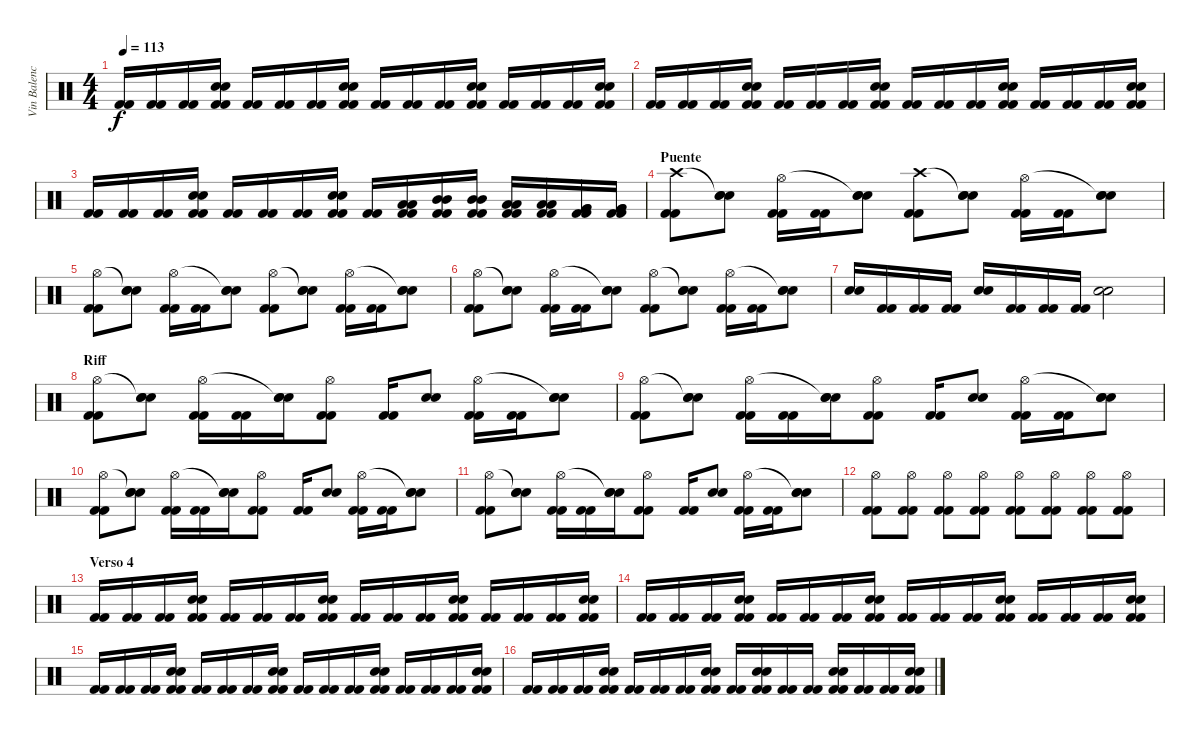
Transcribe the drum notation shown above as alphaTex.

\track ("Vin Balencia (bateria)" "Vin Balenc") {instrument percussion}
\staff {score}
\articulation defaults
\ts (4 4)
\tempo 113
\clef neutral
\ks c
("Kick (hit) 2" "Kick (hit) 2").16{dy f} ("Kick (hit) 2" "Kick (hit) 2").16 ("Kick (hit) 2" "Kick (hit) 2").16 ("Electric Snare (hit)" "Electric Snare (hit)" "Kick (hit) 2" "Kick (hit) 2").16 ("Kick (hit) 2" "Kick (hit) 2").16 ("Kick (hit) 2" "Kick (hit) 2").16 ("Kick (hit) 2" "Kick (hit) 2").16 ("Electric Snare (hit)" "Electric Snare (hit)" "Kick (hit) 2" "Kick (hit) 2").16 ("Kick (hit) 2" "Kick (hit) 2").16 ("Kick (hit) 2" "Kick (hit) 2").16 ("Kick (hit) 2" "Kick (hit) 2").16 ("Electric Snare (hit)" "Electric Snare (hit)" "Kick (hit) 2" "Kick (hit) 2").16 ("Kick (hit) 2" "Kick (hit) 2").16 ("Kick (hit) 2" "Kick (hit) 2").16 ("Kick (hit) 2" "Kick (hit) 2").16 ("Electric Snare (hit)" "Electric Snare (hit)" "Kick (hit) 2" "Kick (hit) 2").16 |
("Kick (hit) 2" "Kick (hit) 2").16 ("Kick (hit) 2" "Kick (hit) 2").16 ("Kick (hit) 2" "Kick (hit) 2").16 ("Electric Snare (hit)" "Electric Snare (hit)" "Kick (hit) 2" "Kick (hit) 2").16 ("Kick (hit) 2" "Kick (hit) 2").16 ("Kick (hit) 2" "Kick (hit) 2").16 ("Kick (hit) 2" "Kick (hit) 2").16 ("Electric Snare (hit)" "Electric Snare (hit)" "Kick (hit) 2" "Kick (hit) 2").16 ("Kick (hit) 2" "Kick (hit) 2").16 ("Kick (hit) 2" "Kick (hit) 2").16 ("Kick (hit) 2" "Kick (hit) 2").16 ("Electric Snare (hit)" "Electric Snare (hit)" "Kick (hit) 2" "Kick (hit) 2").16 ("Kick (hit) 2" "Kick (hit) 2").16 ("Kick (hit) 2" "Kick (hit) 2").16 ("Kick (hit) 2" "Kick (hit) 2").16 ("Electric Snare (hit)" "Electric Snare (hit)" "Kick (hit) 2" "Kick (hit) 2").16 |
("Kick (hit) 2" "Kick (hit) 2").16 ("Kick (hit) 2" "Kick (hit) 2").16 ("Kick (hit) 2" "Kick (hit) 2").16 ("Electric Snare (hit)" "Electric Snare (hit)" "Kick (hit) 2" "Kick (hit) 2").16 ("Kick (hit) 2" "Kick (hit) 2").16 ("Kick (hit) 2" "Kick (hit) 2").16 ("Kick (hit) 2" "Kick (hit) 2").16 ("Electric Snare (hit)" "Electric Snare (hit)" "Kick (hit) 2" "Kick (hit) 2").16 ("Kick (hit) 2" "Kick (hit) 2").16 ("Low Floor Tom (hit)" "Low Floor Tom (hit)" "Kick (hit) 2" "Kick (hit) 2").16 ("Mid Tom (hit)" "Mid Tom (hit)" "Kick (hit) 2" "Kick (hit) 2").16 ("Mid Tom (hit)" "Mid Tom (hit)" "Kick (hit) 2" "Kick (hit) 2").16 ("Low Tom (hit)" "Low Tom (hit)" "Kick (hit) 2" "Kick (hit) 2").16 ("Low Tom (hit)" "Low Tom (hit)" "Kick (hit) 2" "Kick (hit) 2").16 ("Very Low Tom (hit)" "Very Low Tom (hit)" "Kick (hit) 2" "Kick (hit) 2").16 ("Very Low Tom (hit)" "Very Low Tom (hit)" "Kick (hit) 2" "Kick (hit) 2").16 |
\section ("" "Puente")
("Kick (hit) 2" "Kick (hit) 2" "Crash high (hit)").8 ("Snare (hit) 2" "Snare (hit) 2" "Snare (hit)"{t}).8 ("Kick (hit) 2" "Kick (hit) 2" "Hi-Hat (open)").16 ("Kick (hit) 2" "Kick (hit) 2").16 ("Snare (hit) 2" "Snare (hit) 2" "Snare (hit)"{t}).8 ("Kick (hit) 2" "Kick (hit) 2" "Crash high (hit)").8 ("Snare (hit) 2" "Snare (hit) 2" "Snare (hit)"{t}).8 ("Kick (hit) 2" "Kick (hit) 2" "Hi-Hat (open)").16 ("Kick (hit) 2" "Kick (hit) 2").16 ("Snare (hit) 2" "Snare (hit) 2" "Snare (hit)"{t}).8 |
("Kick (hit) 2" "Kick (hit) 2" "Hi-Hat (open)").8 ("Snare (hit) 2" "Snare (hit) 2" "Snare (hit)"{t}).8 ("Kick (hit) 2" "Kick (hit) 2" "Hi-Hat (open)").16 ("Kick (hit) 2" "Kick (hit) 2").16 ("Snare (hit) 2" "Snare (hit) 2" "Snare (hit)"{t}).8 ("Kick (hit) 2" "Kick (hit) 2" "Hi-Hat (open)").8 ("Snare (hit) 2" "Snare (hit) 2" "Snare (hit)"{t}).8 ("Kick (hit) 2" "Kick (hit) 2" "Hi-Hat (open)").16 ("Kick (hit) 2" "Kick (hit) 2").16 ("Snare (hit) 2" "Snare (hit) 2" "Snare (hit)"{t}).8 |
("Kick (hit) 2" "Kick (hit) 2" "Hi-Hat (open)").8 ("Snare (hit) 2" "Snare (hit) 2" "Snare (hit)"{t}).8 ("Kick (hit) 2" "Kick (hit) 2" "Hi-Hat (open)").16 ("Kick (hit) 2" "Kick (hit) 2").16 ("Snare (hit) 2" "Snare (hit) 2" "Snare (hit)"{t}).8 ("Kick (hit) 2" "Kick (hit) 2" "Hi-Hat (open)").8 ("Snare (hit) 2" "Snare (hit) 2" "Snare (hit)"{t}).8 ("Kick (hit) 2" "Kick (hit) 2" "Hi-Hat (open)").16 ("Kick (hit) 2" "Kick (hit) 2").16 ("Snare (hit) 2" "Snare (hit) 2" "Snare (hit)"{t}).8 |
("Electric Snare (hit)" "Electric Snare (hit)").16 ("Kick (hit) 2" "Kick (hit) 2").16 ("Kick (hit) 2" "Kick (hit) 2").16 ("Kick (hit) 2" "Kick (hit) 2").16 ("Electric Snare (hit)" "Electric Snare (hit)").16 ("Kick (hit) 2" "Kick (hit) 2").16 ("Kick (hit) 2" "Kick (hit) 2").16 ("Kick (hit) 2" "Kick (hit) 2").16 ("Electric Snare (hit)" "Electric Snare (hit)").2 |
\section ("" "Riff")
("Kick (hit) 2" "Kick (hit) 2" "Hi-Hat (open)").8 ("Snare (hit) 2" "Snare (hit) 2" "Snare (hit)"{t}).8 ("Kick (hit) 2" "Kick (hit) 2" "Hi-Hat (open)").16 ("Kick (hit) 2" "Kick (hit) 2").16 ("Snare (hit) 2" "Snare (hit) 2" "Snare (hit)"{t}).16 ("Kick (hit) 2" "Kick (hit) 2" "Hi-Hat (open)").8 ("Kick (hit) 2" "Kick (hit) 2").16 ("Snare (hit) 2" "Snare (hit) 2").8 ("Kick (hit) 2" "Kick (hit) 2" "Hi-Hat (open)").16 ("Kick (hit) 2" "Kick (hit) 2").16 ("Snare (hit) 2" "Snare (hit) 2" "Snare (hit)"{t}).8 |
("Kick (hit) 2" "Kick (hit) 2" "Hi-Hat (open)").8 ("Snare (hit) 2" "Snare (hit) 2" "Snare (hit)"{t}).8 ("Kick (hit) 2" "Kick (hit) 2" "Hi-Hat (open)").16 ("Kick (hit) 2" "Kick (hit) 2").16 ("Snare (hit) 2" "Snare (hit) 2" "Snare (hit)"{t}).16 ("Kick (hit) 2" "Kick (hit) 2" "Hi-Hat (open)").8 ("Kick (hit) 2" "Kick (hit) 2").16 ("Snare (hit) 2" "Snare (hit) 2").8 ("Kick (hit) 2" "Kick (hit) 2" "Hi-Hat (open)").16 ("Kick (hit) 2" "Kick (hit) 2").16 ("Snare (hit) 2" "Snare (hit) 2" "Snare (hit)"{t}).8 |
("Kick (hit) 2" "Kick (hit) 2" "Hi-Hat (open)").8 ("Snare (hit) 2" "Snare (hit) 2" "Snare (hit)"{t}).8 ("Kick (hit) 2" "Kick (hit) 2" "Hi-Hat (open)").16 ("Kick (hit) 2" "Kick (hit) 2").16 ("Snare (hit) 2" "Snare (hit) 2" "Snare (hit)"{t}).16 ("Kick (hit) 2" "Kick (hit) 2" "Hi-Hat (open)").8 ("Kick (hit) 2" "Kick (hit) 2").16 ("Snare (hit) 2" "Snare (hit) 2").8 ("Kick (hit) 2" "Kick (hit) 2" "Hi-Hat (open)").16 ("Kick (hit) 2" "Kick (hit) 2").16 ("Snare (hit) 2" "Snare (hit) 2" "Snare (hit)"{t}).8 |
("Kick (hit) 2" "Kick (hit) 2" "Hi-Hat (open)").8 ("Snare (hit) 2" "Snare (hit) 2" "Snare (hit)"{t}).8 ("Kick (hit) 2" "Kick (hit) 2" "Hi-Hat (open)").16 ("Kick (hit) 2" "Kick (hit) 2").16 ("Snare (hit) 2" "Snare (hit) 2" "Snare (hit)"{t}).16 ("Kick (hit) 2" "Kick (hit) 2" "Hi-Hat (open)").8 ("Kick (hit) 2" "Kick (hit) 2").16 ("Snare (hit) 2" "Snare (hit) 2").8 ("Kick (hit) 2" "Kick (hit) 2" "Hi-Hat (open)").16 ("Kick (hit) 2" "Kick (hit) 2").16 ("Snare (hit) 2" "Snare (hit) 2" "Snare (hit)"{t}).8 |
("Hi-Hat (open)" "Kick (hit) 2" "Kick (hit) 2").8 ("Hi-Hat (open)" "Kick (hit) 2" "Kick (hit) 2").8 ("Hi-Hat (open)" "Kick (hit) 2" "Kick (hit) 2").8 ("Hi-Hat (open)" "Kick (hit) 2" "Kick (hit) 2").8 ("Hi-Hat (open)" "Kick (hit) 2" "Kick (hit) 2").8 ("Hi-Hat (open)" "Kick (hit) 2" "Kick (hit) 2").8 ("Hi-Hat (open)" "Kick (hit) 2" "Kick (hit) 2").8 ("Hi-Hat (open)" "Kick (hit) 2" "Kick (hit) 2").8 |
\section ("" "Verso 4")
("Kick (hit) 2" "Kick (hit) 2").16 ("Kick (hit) 2" "Kick (hit) 2").16 ("Kick (hit) 2" "Kick (hit) 2").16 ("Electric Snare (hit)" "Electric Snare (hit)" "Kick (hit) 2" "Kick (hit) 2").16 ("Kick (hit) 2" "Kick (hit) 2").16 ("Kick (hit) 2" "Kick (hit) 2").16 ("Kick (hit) 2" "Kick (hit) 2").16 ("Electric Snare (hit)" "Electric Snare (hit)" "Kick (hit) 2" "Kick (hit) 2").16 ("Kick (hit) 2" "Kick (hit) 2").16 ("Kick (hit) 2" "Kick (hit) 2").16 ("Kick (hit) 2" "Kick (hit) 2").16 ("Electric Snare (hit)" "Electric Snare (hit)" "Kick (hit) 2" "Kick (hit) 2").16 ("Kick (hit) 2" "Kick (hit) 2").16 ("Kick (hit) 2" "Kick (hit) 2").16 ("Kick (hit) 2" "Kick (hit) 2").16 ("Electric Snare (hit)" "Electric Snare (hit)" "Kick (hit) 2" "Kick (hit) 2").16 |
("Kick (hit) 2" "Kick (hit) 2").16 ("Kick (hit) 2" "Kick (hit) 2").16 ("Kick (hit) 2" "Kick (hit) 2").16 ("Electric Snare (hit)" "Electric Snare (hit)" "Kick (hit) 2" "Kick (hit) 2").16 ("Kick (hit) 2" "Kick (hit) 2").16 ("Kick (hit) 2" "Kick (hit) 2").16 ("Kick (hit) 2" "Kick (hit) 2").16 ("Electric Snare (hit)" "Electric Snare (hit)" "Kick (hit) 2" "Kick (hit) 2").16 ("Kick (hit) 2" "Kick (hit) 2").16 ("Kick (hit) 2" "Kick (hit) 2").16 ("Kick (hit) 2" "Kick (hit) 2").16 ("Electric Snare (hit)" "Electric Snare (hit)" "Kick (hit) 2" "Kick (hit) 2").16 ("Kick (hit) 2" "Kick (hit) 2").16 ("Kick (hit) 2" "Kick (hit) 2").16 ("Kick (hit) 2" "Kick (hit) 2").16 ("Electric Snare (hit)" "Electric Snare (hit)" "Kick (hit) 2" "Kick (hit) 2").16 |
("Kick (hit) 2" "Kick (hit) 2").16 ("Kick (hit) 2" "Kick (hit) 2").16 ("Kick (hit) 2" "Kick (hit) 2").16 ("Electric Snare (hit)" "Electric Snare (hit)" "Kick (hit) 2" "Kick (hit) 2").16 ("Kick (hit) 2" "Kick (hit) 2").16 ("Kick (hit) 2" "Kick (hit) 2").16 ("Kick (hit) 2" "Kick (hit) 2").16 ("Electric Snare (hit)" "Electric Snare (hit)" "Kick (hit) 2" "Kick (hit) 2").16 ("Kick (hit) 2" "Kick (hit) 2").16 ("Kick (hit) 2" "Kick (hit) 2").16 ("Kick (hit) 2" "Kick (hit) 2").16 ("Electric Snare (hit)" "Electric Snare (hit)" "Kick (hit) 2" "Kick (hit) 2").16 ("Kick (hit) 2" "Kick (hit) 2").16 ("Kick (hit) 2" "Kick (hit) 2").16 ("Kick (hit) 2" "Kick (hit) 2").16 ("Electric Snare (hit)" "Electric Snare (hit)" "Kick (hit) 2" "Kick (hit) 2").16 |
("Kick (hit) 2" "Kick (hit) 2").16 ("Kick (hit) 2" "Kick (hit) 2").16 ("Kick (hit) 2" "Kick (hit) 2").16 ("Electric Snare (hit)" "Electric Snare (hit)" "Kick (hit) 2" "Kick (hit) 2").16 ("Kick (hit) 2" "Kick (hit) 2").16 ("Kick (hit) 2" "Kick (hit) 2").16 ("Kick (hit) 2" "Kick (hit) 2").16 ("Electric Snare (hit)" "Electric Snare (hit)" "Kick (hit) 2" "Kick (hit) 2").16 ("Kick (hit) 2" "Kick (hit) 2").16 ("Electric Snare (hit)" "Electric Snare (hit)" "Kick (hit) 2" "Kick (hit) 2").16 ("Kick (hit) 2" "Kick (hit) 2").16 ("Kick (hit) 2" "Kick (hit) 2").16 ("Electric Snare (hit)" "Electric Snare (hit)" "Kick (hit) 2" "Kick (hit) 2").16 ("Kick (hit) 2" "Kick (hit) 2").16 ("Kick (hit) 2" "Kick (hit) 2").16 ("Electric Snare (hit)" "Electric Snare (hit)" "Kick (hit) 2" "Kick (hit) 2").16
